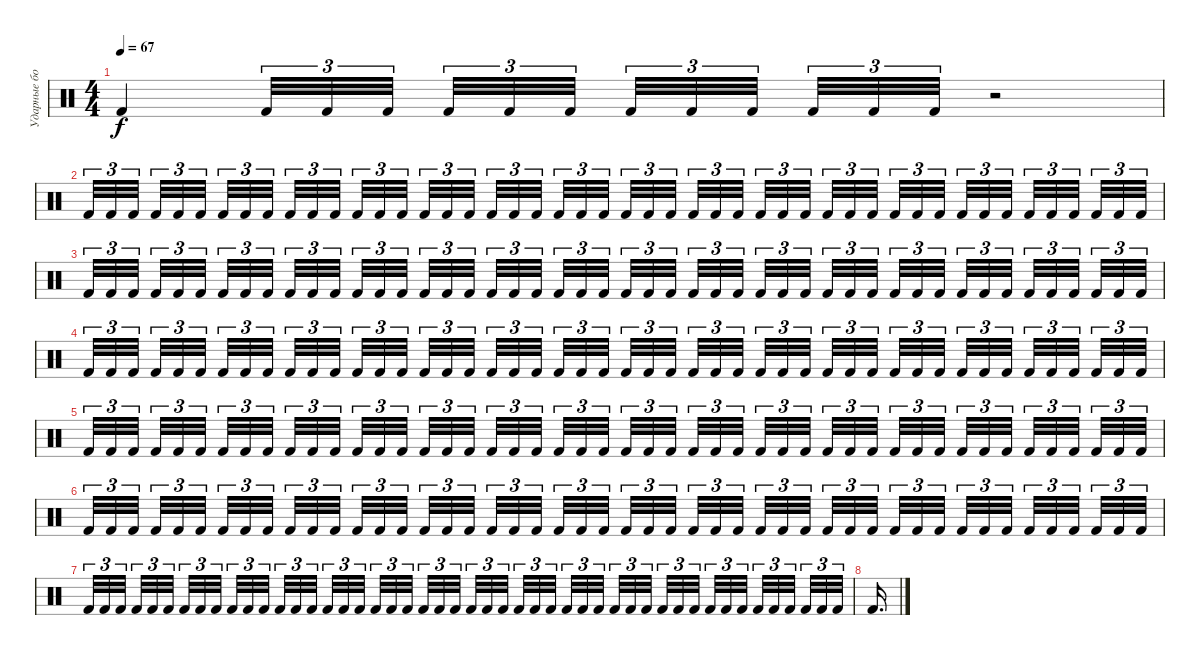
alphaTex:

\track ("Ударные бочка" "Ударные бо") {instrument percussion}
\staff {score}
\articulation defaults
\ts (4 4)
\tempo 67
\clef neutral
\ks c "Kick (hit) 2".4{dy f} "Kick (hit) 2".32{tu (3 2)} "Kick (hit) 2".32{tu (3 2)} "Kick (hit) 2".32{tu (3 2) beam splitsecondary} "Kick (hit) 2".32{tu (3 2)} "Kick (hit) 2".32{tu (3 2)} "Kick (hit) 2".32{tu (3 2) beam splitsecondary} "Kick (hit) 2".32{tu (3 2)} "Kick (hit) 2".32{tu (3 2)} "Kick (hit) 2".32{tu (3 2) beam splitsecondary} "Kick (hit) 2".32{tu (3 2)} "Kick (hit) 2".32{tu (3 2)} "Kick (hit) 2".32{tu (3 2)}
r.2 |
"Kick (hit) 2".32{tu (3 2)} "Kick (hit) 2".32{tu (3 2)} "Kick (hit) 2".32{tu (3 2) beam splitsecondary} "Kick (hit) 2".32{tu (3 2)} "Kick (hit) 2".32{tu (3 2)} "Kick (hit) 2".32{tu (3 2) beam splitsecondary} "Kick (hit) 2".32{tu (3 2)} "Kick (hit) 2".32{tu (3 2)} "Kick (hit) 2".32{tu (3 2) beam splitsecondary} "Kick (hit) 2".32{tu (3 2)} "Kick (hit) 2".32{tu (3 2)} "Kick (hit) 2".32{tu (3 2)} "Kick (hit) 2".32{tu (3 2)} "Kick (hit) 2".32{tu (3 2)} "Kick (hit) 2".32{tu (3 2) beam splitsecondary} "Kick (hit) 2".32{tu (3 2)} "Kick (hit) 2".32{tu (3 2)} "Kick (hit) 2".32{tu (3 2) beam splitsecondary} "Kick (hit) 2".32{tu (3 2)} "Kick (hit) 2".32{tu (3 2)} "Kick (hit) 2".32{tu (3 2) beam splitsecondary} "Kick (hit) 2".32{tu (3 2)} "Kick (hit) 2".32{tu (3 2)} "Kick (hit) 2".32{tu (3 2)} "Kick (hit) 2".32{tu (3 2)} "Kick (hit) 2".32{tu (3 2)} "Kick (hit) 2".32{tu (3 2) beam splitsecondary} "Kick (hit) 2".32{tu (3 2)} "Kick (hit) 2".32{tu (3 2)} "Kick (hit) 2".32{tu (3 2) beam splitsecondary} "Kick (hit) 2".32{tu (3 2)} "Kick (hit) 2".32{tu (3 2)} "Kick (hit) 2".32{tu (3 2) beam splitsecondary} "Kick (hit) 2".32{tu (3 2)} "Kick (hit) 2".32{tu (3 2)} "Kick (hit) 2".32{tu (3 2)} "Kick (hit) 2".32{tu (3 2)} "Kick (hit) 2".32{tu (3 2)} "Kick (hit) 2".32{tu (3 2) beam splitsecondary} "Kick (hit) 2".32{tu (3 2)} "Kick (hit) 2".32{tu (3 2)} "Kick (hit) 2".32{tu (3 2) beam splitsecondary} "Kick (hit) 2".32{tu (3 2)} "Kick (hit) 2".32{tu (3 2)} "Kick (hit) 2".32{tu (3 2) beam splitsecondary} "Kick (hit) 2".32{tu (3 2)} "Kick (hit) 2".32{tu (3 2)} "Kick (hit) 2".32{tu (3 2)} |
"Kick (hit) 2".32{tu (3 2)} "Kick (hit) 2".32{tu (3 2)} "Kick (hit) 2".32{tu (3 2) beam splitsecondary} "Kick (hit) 2".32{tu (3 2)} "Kick (hit) 2".32{tu (3 2)} "Kick (hit) 2".32{tu (3 2) beam splitsecondary} "Kick (hit) 2".32{tu (3 2)} "Kick (hit) 2".32{tu (3 2)} "Kick (hit) 2".32{tu (3 2) beam splitsecondary} "Kick (hit) 2".32{tu (3 2)} "Kick (hit) 2".32{tu (3 2)} "Kick (hit) 2".32{tu (3 2)} "Kick (hit) 2".32{tu (3 2)} "Kick (hit) 2".32{tu (3 2)} "Kick (hit) 2".32{tu (3 2) beam splitsecondary} "Kick (hit) 2".32{tu (3 2)} "Kick (hit) 2".32{tu (3 2)} "Kick (hit) 2".32{tu (3 2) beam splitsecondary} "Kick (hit) 2".32{tu (3 2)} "Kick (hit) 2".32{tu (3 2)} "Kick (hit) 2".32{tu (3 2) beam splitsecondary} "Kick (hit) 2".32{tu (3 2)} "Kick (hit) 2".32{tu (3 2)} "Kick (hit) 2".32{tu (3 2)} "Kick (hit) 2".32{tu (3 2)} "Kick (hit) 2".32{tu (3 2)} "Kick (hit) 2".32{tu (3 2) beam splitsecondary} "Kick (hit) 2".32{tu (3 2)} "Kick (hit) 2".32{tu (3 2)} "Kick (hit) 2".32{tu (3 2) beam splitsecondary} "Kick (hit) 2".32{tu (3 2)} "Kick (hit) 2".32{tu (3 2)} "Kick (hit) 2".32{tu (3 2) beam splitsecondary} "Kick (hit) 2".32{tu (3 2)} "Kick (hit) 2".32{tu (3 2)} "Kick (hit) 2".32{tu (3 2)} "Kick (hit) 2".32{tu (3 2)} "Kick (hit) 2".32{tu (3 2)} "Kick (hit) 2".32{tu (3 2) beam splitsecondary} "Kick (hit) 2".32{tu (3 2)} "Kick (hit) 2".32{tu (3 2)} "Kick (hit) 2".32{tu (3 2) beam splitsecondary} "Kick (hit) 2".32{tu (3 2)} "Kick (hit) 2".32{tu (3 2)} "Kick (hit) 2".32{tu (3 2) beam splitsecondary} "Kick (hit) 2".32{tu (3 2)} "Kick (hit) 2".32{tu (3 2)} "Kick (hit) 2".32{tu (3 2)} |
"Kick (hit) 2".32{tu (3 2)} "Kick (hit) 2".32{tu (3 2)} "Kick (hit) 2".32{tu (3 2) beam splitsecondary} "Kick (hit) 2".32{tu (3 2)} "Kick (hit) 2".32{tu (3 2)} "Kick (hit) 2".32{tu (3 2) beam splitsecondary} "Kick (hit) 2".32{tu (3 2)} "Kick (hit) 2".32{tu (3 2)} "Kick (hit) 2".32{tu (3 2) beam splitsecondary} "Kick (hit) 2".32{tu (3 2)} "Kick (hit) 2".32{tu (3 2)} "Kick (hit) 2".32{tu (3 2)} "Kick (hit) 2".32{tu (3 2)} "Kick (hit) 2".32{tu (3 2)} "Kick (hit) 2".32{tu (3 2) beam splitsecondary} "Kick (hit) 2".32{tu (3 2)} "Kick (hit) 2".32{tu (3 2)} "Kick (hit) 2".32{tu (3 2) beam splitsecondary} "Kick (hit) 2".32{tu (3 2)} "Kick (hit) 2".32{tu (3 2)} "Kick (hit) 2".32{tu (3 2) beam splitsecondary} "Kick (hit) 2".32{tu (3 2)} "Kick (hit) 2".32{tu (3 2)} "Kick (hit) 2".32{tu (3 2)} "Kick (hit) 2".32{tu (3 2)} "Kick (hit) 2".32{tu (3 2)} "Kick (hit) 2".32{tu (3 2) beam splitsecondary} "Kick (hit) 2".32{tu (3 2)} "Kick (hit) 2".32{tu (3 2)} "Kick (hit) 2".32{tu (3 2) beam splitsecondary} "Kick (hit) 2".32{tu (3 2)} "Kick (hit) 2".32{tu (3 2)} "Kick (hit) 2".32{tu (3 2) beam splitsecondary} "Kick (hit) 2".32{tu (3 2)} "Kick (hit) 2".32{tu (3 2)} "Kick (hit) 2".32{tu (3 2)} "Kick (hit) 2".32{tu (3 2)} "Kick (hit) 2".32{tu (3 2)} "Kick (hit) 2".32{tu (3 2) beam splitsecondary} "Kick (hit) 2".32{tu (3 2)} "Kick (hit) 2".32{tu (3 2)} "Kick (hit) 2".32{tu (3 2) beam splitsecondary} "Kick (hit) 2".32{tu (3 2)} "Kick (hit) 2".32{tu (3 2)} "Kick (hit) 2".32{tu (3 2) beam splitsecondary} "Kick (hit) 2".32{tu (3 2)} "Kick (hit) 2".32{tu (3 2)} "Kick (hit) 2".32{tu (3 2)} |
"Kick (hit) 2".32{tu (3 2)} "Kick (hit) 2".32{tu (3 2)} "Kick (hit) 2".32{tu (3 2) beam splitsecondary} "Kick (hit) 2".32{tu (3 2)} "Kick (hit) 2".32{tu (3 2)} "Kick (hit) 2".32{tu (3 2) beam splitsecondary} "Kick (hit) 2".32{tu (3 2)} "Kick (hit) 2".32{tu (3 2)} "Kick (hit) 2".32{tu (3 2) beam splitsecondary} "Kick (hit) 2".32{tu (3 2)} "Kick (hit) 2".32{tu (3 2)} "Kick (hit) 2".32{tu (3 2)} "Kick (hit) 2".32{tu (3 2)} "Kick (hit) 2".32{tu (3 2)} "Kick (hit) 2".32{tu (3 2) beam splitsecondary} "Kick (hit) 2".32{tu (3 2)} "Kick (hit) 2".32{tu (3 2)} "Kick (hit) 2".32{tu (3 2) beam splitsecondary} "Kick (hit) 2".32{tu (3 2)} "Kick (hit) 2".32{tu (3 2)} "Kick (hit) 2".32{tu (3 2) beam splitsecondary} "Kick (hit) 2".32{tu (3 2)} "Kick (hit) 2".32{tu (3 2)} "Kick (hit) 2".32{tu (3 2)} "Kick (hit) 2".32{tu (3 2)} "Kick (hit) 2".32{tu (3 2)} "Kick (hit) 2".32{tu (3 2) beam splitsecondary} "Kick (hit) 2".32{tu (3 2)} "Kick (hit) 2".32{tu (3 2)} "Kick (hit) 2".32{tu (3 2) beam splitsecondary} "Kick (hit) 2".32{tu (3 2)} "Kick (hit) 2".32{tu (3 2)} "Kick (hit) 2".32{tu (3 2) beam splitsecondary} "Kick (hit) 2".32{tu (3 2)} "Kick (hit) 2".32{tu (3 2)} "Kick (hit) 2".32{tu (3 2)} "Kick (hit) 2".32{tu (3 2)} "Kick (hit) 2".32{tu (3 2)} "Kick (hit) 2".32{tu (3 2) beam splitsecondary} "Kick (hit) 2".32{tu (3 2)} "Kick (hit) 2".32{tu (3 2)} "Kick (hit) 2".32{tu (3 2) beam splitsecondary} "Kick (hit) 2".32{tu (3 2)} "Kick (hit) 2".32{tu (3 2)} "Kick (hit) 2".32{tu (3 2) beam splitsecondary} "Kick (hit) 2".32{tu (3 2)} "Kick (hit) 2".32{tu (3 2)} "Kick (hit) 2".32{tu (3 2)} |
"Kick (hit) 2".32{tu (3 2)} "Kick (hit) 2".32{tu (3 2)} "Kick (hit) 2".32{tu (3 2) beam splitsecondary} "Kick (hit) 2".32{tu (3 2)} "Kick (hit) 2".32{tu (3 2)} "Kick (hit) 2".32{tu (3 2) beam splitsecondary} "Kick (hit) 2".32{tu (3 2)} "Kick (hit) 2".32{tu (3 2)} "Kick (hit) 2".32{tu (3 2) beam splitsecondary} "Kick (hit) 2".32{tu (3 2)} "Kick (hit) 2".32{tu (3 2)} "Kick (hit) 2".32{tu (3 2)} "Kick (hit) 2".32{tu (3 2)} "Kick (hit) 2".32{tu (3 2)} "Kick (hit) 2".32{tu (3 2) beam splitsecondary} "Kick (hit) 2".32{tu (3 2)} "Kick (hit) 2".32{tu (3 2)} "Kick (hit) 2".32{tu (3 2) beam splitsecondary} "Kick (hit) 2".32{tu (3 2)} "Kick (hit) 2".32{tu (3 2)} "Kick (hit) 2".32{tu (3 2) beam splitsecondary} "Kick (hit) 2".32{tu (3 2)} "Kick (hit) 2".32{tu (3 2)} "Kick (hit) 2".32{tu (3 2)} "Kick (hit) 2".32{tu (3 2)} "Kick (hit) 2".32{tu (3 2)} "Kick (hit) 2".32{tu (3 2) beam splitsecondary} "Kick (hit) 2".32{tu (3 2)} "Kick (hit) 2".32{tu (3 2)} "Kick (hit) 2".32{tu (3 2) beam splitsecondary} "Kick (hit) 2".32{tu (3 2)} "Kick (hit) 2".32{tu (3 2)} "Kick (hit) 2".32{tu (3 2) beam splitsecondary} "Kick (hit) 2".32{tu (3 2)} "Kick (hit) 2".32{tu (3 2)} "Kick (hit) 2".32{tu (3 2)} "Kick (hit) 2".32{tu (3 2)} "Kick (hit) 2".32{tu (3 2)} "Kick (hit) 2".32{tu (3 2) beam splitsecondary} "Kick (hit) 2".32{tu (3 2)} "Kick (hit) 2".32{tu (3 2)} "Kick (hit) 2".32{tu (3 2) beam splitsecondary} "Kick (hit) 2".32{tu (3 2)} "Kick (hit) 2".32{tu (3 2)} "Kick (hit) 2".32{tu (3 2) beam splitsecondary} "Kick (hit) 2".32{tu (3 2)} "Kick (hit) 2".32{tu (3 2)} "Kick (hit) 2".32{tu (3 2)} |
"Kick (hit) 2".32{tu (3 2)} "Kick (hit) 2".32{tu (3 2)} "Kick (hit) 2".32{tu (3 2) beam splitsecondary} "Kick (hit) 2".32{tu (3 2)} "Kick (hit) 2".32{tu (3 2)} "Kick (hit) 2".32{tu (3 2) beam splitsecondary} "Kick (hit) 2".32{tu (3 2)} "Kick (hit) 2".32{tu (3 2)} "Kick (hit) 2".32{tu (3 2) beam splitsecondary} "Kick (hit) 2".32{tu (3 2)} "Kick (hit) 2".32{tu (3 2)} "Kick (hit) 2".32{tu (3 2)} "Kick (hit) 2".32{tu (3 2)} "Kick (hit) 2".32{tu (3 2)} "Kick (hit) 2".32{tu (3 2) beam splitsecondary} "Kick (hit) 2".32{tu (3 2)} "Kick (hit) 2".32{tu (3 2)} "Kick (hit) 2".32{tu (3 2) beam splitsecondary} "Kick (hit) 2".32{tu (3 2)} "Kick (hit) 2".32{tu (3 2)} "Kick (hit) 2".32{tu (3 2) beam splitsecondary} "Kick (hit) 2".32{tu (3 2)} "Kick (hit) 2".32{tu (3 2)} "Kick (hit) 2".32{tu (3 2)} "Kick (hit) 2".32{tu (3 2)} "Kick (hit) 2".32{tu (3 2)} "Kick (hit) 2".32{tu (3 2) beam splitsecondary} "Kick (hit) 2".32{tu (3 2)} "Kick (hit) 2".32{tu (3 2)} "Kick (hit) 2".32{tu (3 2) beam splitsecondary} "Kick (hit) 2".32{tu (3 2)} "Kick (hit) 2".32{tu (3 2)} "Kick (hit) 2".32{tu (3 2) beam splitsecondary} "Kick (hit) 2".32{tu (3 2)} "Kick (hit) 2".32{tu (3 2)} "Kick (hit) 2".32{tu (3 2)} "Kick (hit) 2".32{tu (3 2)} "Kick (hit) 2".32{tu (3 2)} "Kick (hit) 2".32{tu (3 2) beam splitsecondary} "Kick (hit) 2".32{tu (3 2)} "Kick (hit) 2".32{tu (3 2)} "Kick (hit) 2".32{tu (3 2) beam splitsecondary} "Kick (hit) 2".32{tu (3 2)} "Kick (hit) 2".32{tu (3 2)} "Kick (hit) 2".32{tu (3 2) beam splitsecondary} "Kick (hit) 2".32{tu (3 2)} "Kick (hit) 2".32{tu (3 2)} "Kick (hit) 2".32{tu (3 2)} |
"Kick (hit) 2".16{d}
